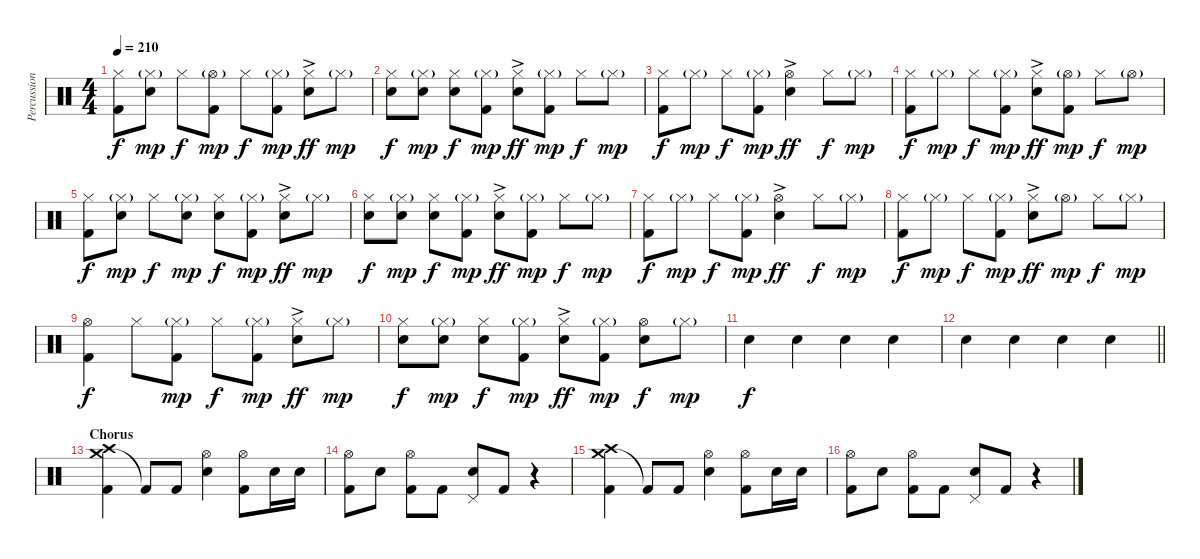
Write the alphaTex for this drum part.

\track ("Percussion" "Percussion") {instrument percussion}
\staff {score}
\articulation defaults
\ts (4 4)
\tempo 210
\clef neutral
\ks c
("Hi-Hat (closed)" "Kick (hit) 2").8{dy f} ("Hi-Hat (closed)"{g} "Electric Snare (hit)").8{dy mp} "Hi-Hat (closed)".8{dy f} ("Hi-Hat (open)"{g} "Kick (hit) 2").8{dy mp} "Hi-Hat (closed)".8{dy f} ("Hi-Hat (closed)"{g} "Kick (hit) 2").8{dy mp} ("Hi-Hat (closed)" "Electric Snare (hit)"{ac}).8{dy ff} "Hi-Hat (closed)"{g}.8{dy mp} |
("Hi-Hat (closed)" "Electric Snare (hit)").8{dy f} ("Hi-Hat (closed)"{g} "Electric Snare (hit)").8{dy mp} ("Hi-Hat (closed)" "Electric Snare (hit)").8{dy f} ("Hi-Hat (closed)"{g} "Kick (hit) 2").8{dy mp} ("Hi-Hat (closed)" "Electric Snare (hit)"{ac}).8{dy ff} ("Hi-Hat (closed)"{g} "Kick (hit) 2").8{dy mp} "Hi-Hat (closed)".8{dy f} "Hi-Hat (closed)"{g}.8{dy mp} |
("Hi-Hat (closed)" "Kick (hit) 2").8{dy f} "Hi-Hat (closed)"{g}.8{dy mp} "Hi-Hat (closed)".8{dy f} ("Hi-Hat (closed)"{g} "Kick (hit) 2").8{dy mp} ("Hi-Hat (open)" "Electric Snare (hit)"{ac}).4{dy ff} "Hi-Hat (closed)".8{dy f} "Hi-Hat (closed)"{g}.8{dy mp} |
("Hi-Hat (closed)" "Kick (hit) 2").8{dy f} "Hi-Hat (closed)"{g}.8{dy mp} "Hi-Hat (closed)".8{dy f} ("Hi-Hat (closed)"{g} "Kick (hit) 2").8{dy mp} ("Hi-Hat (closed)" "Electric Snare (hit)"{ac}).8{dy ff} ("Hi-Hat (open)"{g} "Kick (hit) 2").8{dy mp} "Hi-Hat (closed)".8{dy f} "Hi-Hat (open)"{g}.8{dy mp} |
("Hi-Hat (closed)" "Kick (hit) 2").8{dy f} ("Hi-Hat (closed)"{g} "Electric Snare (hit)").8{dy mp} "Hi-Hat (closed)".8{dy f} ("Hi-Hat (closed)"{g} "Electric Snare (hit)").8{dy mp} ("Hi-Hat (closed)" "Electric Snare (hit)").8{dy f} ("Hi-Hat (closed)"{g} "Kick (hit) 2").8{dy mp} ("Hi-Hat (closed)" "Electric Snare (hit)"{ac}).8{dy ff} "Hi-Hat (closed)"{g}.8{dy mp} |
("Hi-Hat (closed)" "Electric Snare (hit)").8{dy f} ("Hi-Hat (closed)"{g} "Electric Snare (hit)").8{dy mp} ("Hi-Hat (closed)" "Electric Snare (hit)").8{dy f} ("Hi-Hat (closed)"{g} "Kick (hit) 2").8{dy mp} ("Hi-Hat (closed)" "Electric Snare (hit)"{ac}).8{dy ff} ("Hi-Hat (closed)"{g} "Kick (hit) 2").8{dy mp} "Hi-Hat (closed)".8{dy f} "Hi-Hat (closed)"{g}.8{dy mp} |
("Hi-Hat (closed)" "Kick (hit) 2").8{dy f} "Hi-Hat (closed)"{g}.8{dy mp} "Hi-Hat (closed)".8{dy f} ("Hi-Hat (closed)"{g} "Kick (hit) 2").8{dy mp} ("Hi-Hat (open)" "Electric Snare (hit)"{ac}).4{dy ff} "Hi-Hat (closed)".8{dy f} "Hi-Hat (closed)"{g}.8{dy mp} |
("Hi-Hat (closed)" "Kick (hit) 2").8{dy f} "Hi-Hat (closed)"{g}.8{dy mp} "Hi-Hat (closed)".8{dy f} ("Hi-Hat (closed)"{g} "Kick (hit) 2").8{dy mp} ("Hi-Hat (closed)" "Electric Snare (hit)"{ac}).8{dy ff} "Hi-Hat (open)"{g}.8{dy mp} "Hi-Hat (closed)".8{dy f} "Hi-Hat (closed)"{g}.8{dy mp} |
("Hi-Hat (open)" "Kick (hit) 2").4{dy f} "Hi-Hat (closed)".8 ("Hi-Hat (closed)"{g} "Kick (hit) 2").8{dy mp} "Hi-Hat (closed)".8{dy f} ("Hi-Hat (closed)"{g} "Kick (hit) 2").8{dy mp} ("Hi-Hat (closed)" "Electric Snare (hit)"{ac}).8{dy ff} "Hi-Hat (closed)"{g}.8{dy mp} |
("Hi-Hat (closed)" "Electric Snare (hit)").8{dy f} ("Hi-Hat (closed)"{g} "Electric Snare (hit)").8{dy mp} ("Hi-Hat (closed)" "Electric Snare (hit)").8{dy f} ("Hi-Hat (closed)"{g} "Kick (hit) 2").8{dy mp} ("Hi-Hat (closed)" "Electric Snare (hit)"{ac}).8{dy ff} ("Hi-Hat (closed)"{g} "Kick (hit) 2").8{dy mp} ("Hi-Hat (open)" "Electric Snare (hit)").8{dy f} "Hi-Hat (closed)"{g}.8{dy mp} |
"Electric Snare (hit)".4{dy f volume 0} "Electric Snare (hit)".4 "Electric Snare (hit)".4 "Electric Snare (hit)".4 |
\barLineRight lightlight "Electric Snare (hit)".4 "Electric Snare (hit)".4 "Electric Snare (hit)".4 "Electric Snare (hit)".4
|
\section ("" "Chorus")
("Crash medium (hit)" "Crash high (hit)" "Kick (hit) 2").4{volume 14} "Kick (hit) 2"{t}.8 "Kick (hit) 2".8 ("Hi-Hat (open)" "Electric Snare (hit)").4 ("Hi-Hat (open)" "Kick (hit) 2").8 "Electric Snare (hit)".16 "Electric Snare (hit)".16 |
("Hi-Hat (open)" "Kick (hit) 2").8 "Electric Snare (hit)".8 ("Hi-Hat (open)" "Kick (hit) 2").8 "Kick (hit) 2".8 ("Pedal Hi-Hat (hit)" "Electric Snare (hit)").8 "Kick (hit) 2".8 r.4 |
("Crash medium (hit)" "Crash high (hit)" "Kick (hit) 2").4 "Kick (hit) 2"{t}.8 "Kick (hit) 2".8 ("Hi-Hat (open)" "Electric Snare (hit)").4 ("Hi-Hat (open)" "Kick (hit) 2").8 "Electric Snare (hit)".16 "Electric Snare (hit)".16 |
("Hi-Hat (open)" "Kick (hit) 2").8 "Electric Snare (hit)".8 ("Hi-Hat (open)" "Kick (hit) 2").8 "Kick (hit) 2".8 ("Pedal Hi-Hat (hit)" "Electric Snare (hit)").8 "Kick (hit) 2".8 r.4
